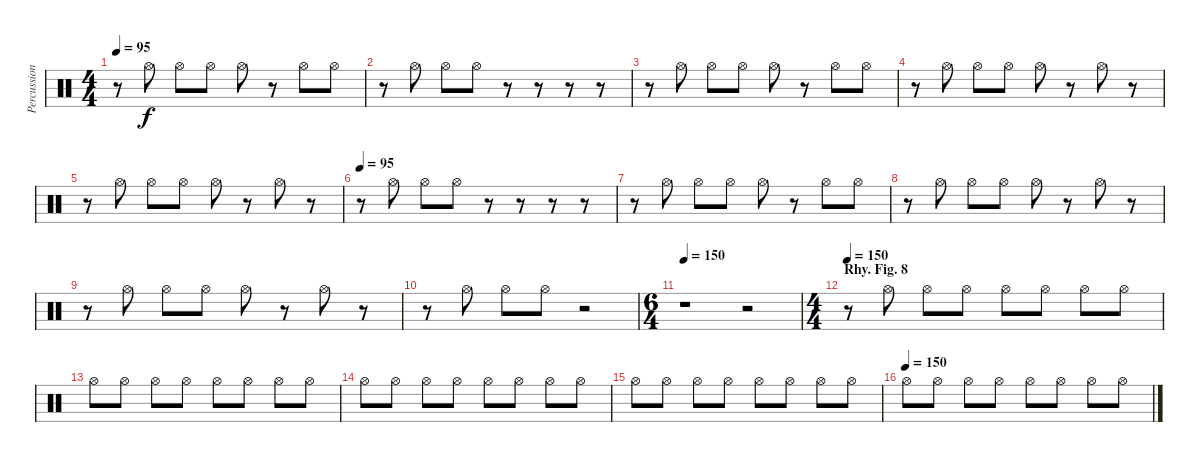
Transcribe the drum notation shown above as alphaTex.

\track ("Percussion" "Percussion") {instrument percussion}
\staff {score}
\articulation defaults
\ts (4 4)
\tempo 95
\clef neutral
\ks c
r.8{dy f} "Hi-Hat (open)".8 "Hi-Hat (open)".8 "Hi-Hat (open)".8 "Hi-Hat (open)".8 r.8 "Hi-Hat (open)".8 "Hi-Hat (open)".8 |
r.8 "Hi-Hat (open)".8 "Hi-Hat (open)".8 "Hi-Hat (open)".8 r.8 r.8 r.8 r.8 |
r.8 "Hi-Hat (open)".8 "Hi-Hat (open)".8 "Hi-Hat (open)".8 "Hi-Hat (open)".8 r.8 "Hi-Hat (open)".8 "Hi-Hat (open)".8 |
r.8 "Hi-Hat (open)".8 "Hi-Hat (open)".8 "Hi-Hat (open)".8 "Hi-Hat (open)".8 r.8 "Hi-Hat (open)".8 r.8 |
r.8 "Hi-Hat (open)".8 "Hi-Hat (open)".8 "Hi-Hat (open)".8 "Hi-Hat (open)".8 r.8 "Hi-Hat (open)".8 r.8 |
\tempo 95
r.8 "Hi-Hat (open)".8 "Hi-Hat (open)".8 "Hi-Hat (open)".8 r.8 r.8 r.8 r.8 |
r.8 "Hi-Hat (open)".8 "Hi-Hat (open)".8 "Hi-Hat (open)".8 "Hi-Hat (open)".8 r.8 "Hi-Hat (open)".8 "Hi-Hat (open)".8 |
r.8 "Hi-Hat (open)".8 "Hi-Hat (open)".8 "Hi-Hat (open)".8 "Hi-Hat (open)".8 r.8 "Hi-Hat (open)".8 r.8 |
r.8 "Hi-Hat (open)".8 "Hi-Hat (open)".8 "Hi-Hat (open)".8 "Hi-Hat (open)".8 r.8 "Hi-Hat (open)".8 r.8 |
r.8 "Hi-Hat (open)".8 "Hi-Hat (open)".8 "Hi-Hat (open)".8 r.2 |
\ts (6 4)
\tempo 150
r.1 r.2 |
\ts (4 4)
\section ("" "Rhy. Fig. 8")
\tempo 150
r.8 "Hi-Hat (open)".8 "Hi-Hat (open)".8 "Hi-Hat (open)".8 "Hi-Hat (open)".8 "Hi-Hat (open)".8 "Hi-Hat (open)".8 "Hi-Hat (open)".8 |
"Hi-Hat (open)".8 "Hi-Hat (open)".8 "Hi-Hat (open)".8 "Hi-Hat (open)".8 "Hi-Hat (open)".8 "Hi-Hat (open)".8 "Hi-Hat (open)".8 "Hi-Hat (open)".8 |
"Hi-Hat (open)".8 "Hi-Hat (open)".8 "Hi-Hat (open)".8 "Hi-Hat (open)".8 "Hi-Hat (open)".8 "Hi-Hat (open)".8 "Hi-Hat (open)".8 "Hi-Hat (open)".8 |
"Hi-Hat (open)".8 "Hi-Hat (open)".8 "Hi-Hat (open)".8 "Hi-Hat (open)".8 "Hi-Hat (open)".8 "Hi-Hat (open)".8 "Hi-Hat (open)".8 "Hi-Hat (open)".8 |
\tempo (150)
"Hi-Hat (open)".8 "Hi-Hat (open)".8 "Hi-Hat (open)".8 "Hi-Hat (open)".8 "Hi-Hat (open)".8 "Hi-Hat (open)".8 "Hi-Hat (open)".8 "Hi-Hat (open)".8
